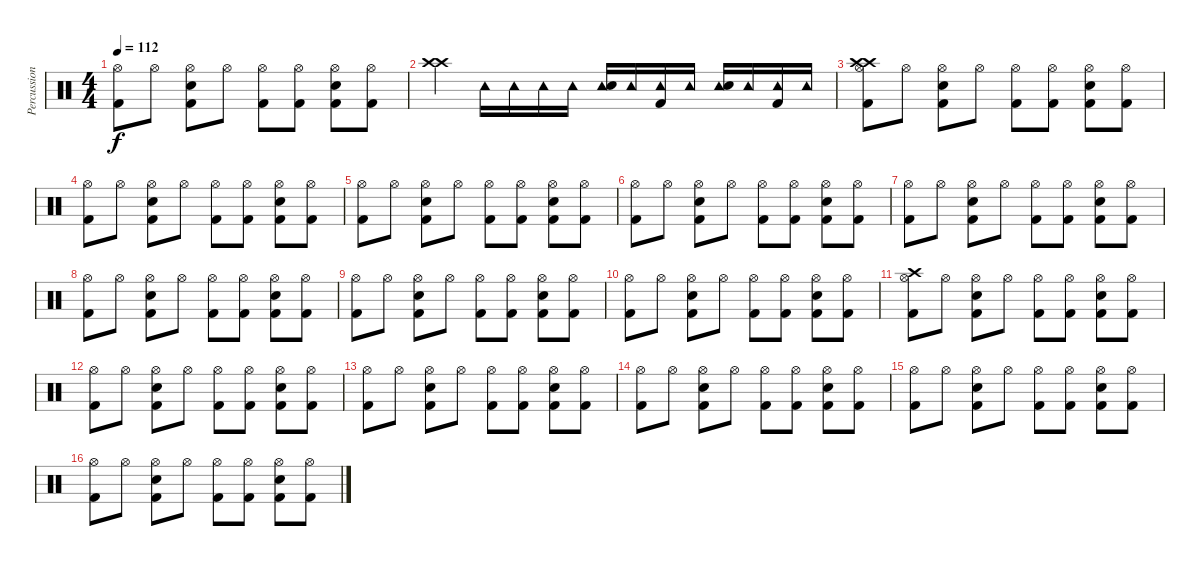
\track ("Percussion" "Percussion") {instrument percussion}
\staff {score}
\articulation defaults
\ts (4 4)
\tempo 112
\clef neutral
\ks c
("Hi-Hat (open)" "Kick (hit) 2").8{dy f} "Hi-Hat (open)".8 ("Hi-Hat (open)" "Electric Snare (hit)" "Kick (hit) 2").8 "Hi-Hat (open)".8 ("Hi-Hat (open)" "Kick (hit) 2").8 ("Hi-Hat (open)" "Kick (hit) 2").8 ("Hi-Hat (open)" "Electric Snare (hit)" "Kick (hit) 2").8 ("Hi-Hat (open)" "Kick (hit) 2").8 |
("Crash high (hit)" "Crash high (hit)").4 "Tambourine (hit)".16 "Tambourine (hit)".16 "Tambourine (hit)".16 "Tambourine (hit)".16 ("Tambourine (hit)" "Electric Snare (hit)").16 "Tambourine (hit)".16 ("Tambourine (hit)" "Kick (hit) 2").16 "Tambourine (hit)".16 ("Tambourine (hit)" "Electric Snare (hit)").16 "Tambourine (hit)".16 ("Tambourine (hit)" "Kick (hit) 2").16 "Tambourine (hit)".16 |
("Hi-Hat (open)" "Crash high (hit)" "Crash high (hit)" "Kick (hit) 2").8 "Hi-Hat (open)".8 ("Hi-Hat (open)" "Electric Snare (hit)" "Kick (hit) 2").8 "Hi-Hat (open)".8 ("Hi-Hat (open)" "Kick (hit) 2").8 ("Hi-Hat (open)" "Kick (hit) 2").8 ("Hi-Hat (open)" "Electric Snare (hit)" "Kick (hit) 2").8 ("Hi-Hat (open)" "Kick (hit) 2").8 |
("Hi-Hat (open)" "Kick (hit) 2").8 "Hi-Hat (open)".8 ("Hi-Hat (open)" "Electric Snare (hit)" "Kick (hit) 2").8 "Hi-Hat (open)".8 ("Hi-Hat (open)" "Kick (hit) 2").8 ("Hi-Hat (open)" "Kick (hit) 2").8 ("Hi-Hat (open)" "Electric Snare (hit)" "Kick (hit) 2").8 ("Hi-Hat (open)" "Kick (hit) 2").8 |
("Hi-Hat (open)" "Kick (hit) 2").8 "Hi-Hat (open)".8 ("Hi-Hat (open)" "Electric Snare (hit)" "Kick (hit) 2").8 "Hi-Hat (open)".8 ("Hi-Hat (open)" "Kick (hit) 2").8 ("Hi-Hat (open)" "Kick (hit) 2").8 ("Hi-Hat (open)" "Electric Snare (hit)" "Kick (hit) 2").8 ("Hi-Hat (open)" "Kick (hit) 2").8 |
("Hi-Hat (open)" "Kick (hit) 2").8 "Hi-Hat (open)".8 ("Hi-Hat (open)" "Electric Snare (hit)" "Kick (hit) 2").8 "Hi-Hat (open)".8 ("Hi-Hat (open)" "Kick (hit) 2").8 ("Hi-Hat (open)" "Kick (hit) 2").8 ("Hi-Hat (open)" "Electric Snare (hit)" "Kick (hit) 2").8 ("Hi-Hat (open)" "Kick (hit) 2").8 |
("Hi-Hat (open)" "Kick (hit) 2").8 "Hi-Hat (open)".8 ("Hi-Hat (open)" "Electric Snare (hit)" "Kick (hit) 2").8 "Hi-Hat (open)".8 ("Hi-Hat (open)" "Kick (hit) 2").8 ("Hi-Hat (open)" "Kick (hit) 2").8 ("Hi-Hat (open)" "Electric Snare (hit)" "Kick (hit) 2").8 ("Hi-Hat (open)" "Kick (hit) 2").8 |
("Hi-Hat (open)" "Kick (hit) 2").8 "Hi-Hat (open)".8 ("Hi-Hat (open)" "Electric Snare (hit)" "Kick (hit) 2").8 "Hi-Hat (open)".8 ("Hi-Hat (open)" "Kick (hit) 2").8 ("Hi-Hat (open)" "Kick (hit) 2").8 ("Hi-Hat (open)" "Electric Snare (hit)" "Kick (hit) 2").8 ("Hi-Hat (open)" "Kick (hit) 2").8 |
("Hi-Hat (open)" "Kick (hit) 2").8 "Hi-Hat (open)".8 ("Hi-Hat (open)" "Electric Snare (hit)" "Kick (hit) 2").8 "Hi-Hat (open)".8 ("Hi-Hat (open)" "Kick (hit) 2").8 ("Hi-Hat (open)" "Kick (hit) 2").8 ("Hi-Hat (open)" "Electric Snare (hit)" "Kick (hit) 2").8 ("Hi-Hat (open)" "Kick (hit) 2").8 |
("Hi-Hat (open)" "Kick (hit) 2").8 "Hi-Hat (open)".8 ("Hi-Hat (open)" "Electric Snare (hit)" "Kick (hit) 2").8 "Hi-Hat (open)".8 ("Hi-Hat (open)" "Kick (hit) 2").8 ("Hi-Hat (open)" "Kick (hit) 2").8 ("Hi-Hat (open)" "Electric Snare (hit)" "Kick (hit) 2").8 ("Hi-Hat (open)" "Kick (hit) 2").8 |
("Hi-Hat (open)" "Crash high (hit)" "Kick (hit) 2").8 "Hi-Hat (open)".8 ("Hi-Hat (open)" "Electric Snare (hit)" "Kick (hit) 2").8 "Hi-Hat (open)".8 ("Hi-Hat (open)" "Kick (hit) 2").8 ("Hi-Hat (open)" "Kick (hit) 2").8 ("Hi-Hat (open)" "Electric Snare (hit)" "Kick (hit) 2").8 ("Hi-Hat (open)" "Kick (hit) 2").8 |
("Hi-Hat (open)" "Kick (hit) 2").8 "Hi-Hat (open)".8 ("Hi-Hat (open)" "Electric Snare (hit)" "Kick (hit) 2").8 "Hi-Hat (open)".8 ("Hi-Hat (open)" "Kick (hit) 2").8 ("Hi-Hat (open)" "Kick (hit) 2").8 ("Hi-Hat (open)" "Electric Snare (hit)" "Kick (hit) 2").8 ("Hi-Hat (open)" "Kick (hit) 2").8 |
("Hi-Hat (open)" "Kick (hit) 2").8 "Hi-Hat (open)".8 ("Hi-Hat (open)" "Electric Snare (hit)" "Kick (hit) 2").8 "Hi-Hat (open)".8 ("Hi-Hat (open)" "Kick (hit) 2").8 ("Hi-Hat (open)" "Kick (hit) 2").8 ("Hi-Hat (open)" "Electric Snare (hit)" "Kick (hit) 2").8 ("Hi-Hat (open)" "Kick (hit) 2").8 |
("Hi-Hat (open)" "Kick (hit) 2").8 "Hi-Hat (open)".8 ("Hi-Hat (open)" "Electric Snare (hit)" "Kick (hit) 2").8 "Hi-Hat (open)".8 ("Hi-Hat (open)" "Kick (hit) 2").8 ("Hi-Hat (open)" "Kick (hit) 2").8 ("Hi-Hat (open)" "Electric Snare (hit)" "Kick (hit) 2").8 ("Hi-Hat (open)" "Kick (hit) 2").8 |
("Hi-Hat (open)" "Kick (hit) 2").8 "Hi-Hat (open)".8 ("Hi-Hat (open)" "Electric Snare (hit)" "Kick (hit) 2").8 "Hi-Hat (open)".8 ("Hi-Hat (open)" "Kick (hit) 2").8 ("Hi-Hat (open)" "Kick (hit) 2").8 ("Hi-Hat (open)" "Electric Snare (hit)" "Kick (hit) 2").8 ("Hi-Hat (open)" "Kick (hit) 2").8 |
("Hi-Hat (open)" "Kick (hit) 2").8 "Hi-Hat (open)".8 ("Hi-Hat (open)" "Electric Snare (hit)" "Kick (hit) 2").8 "Hi-Hat (open)".8 ("Hi-Hat (open)" "Kick (hit) 2").8 ("Hi-Hat (open)" "Kick (hit) 2").8 ("Hi-Hat (open)" "Electric Snare (hit)" "Kick (hit) 2").8 ("Hi-Hat (open)" "Kick (hit) 2").8
